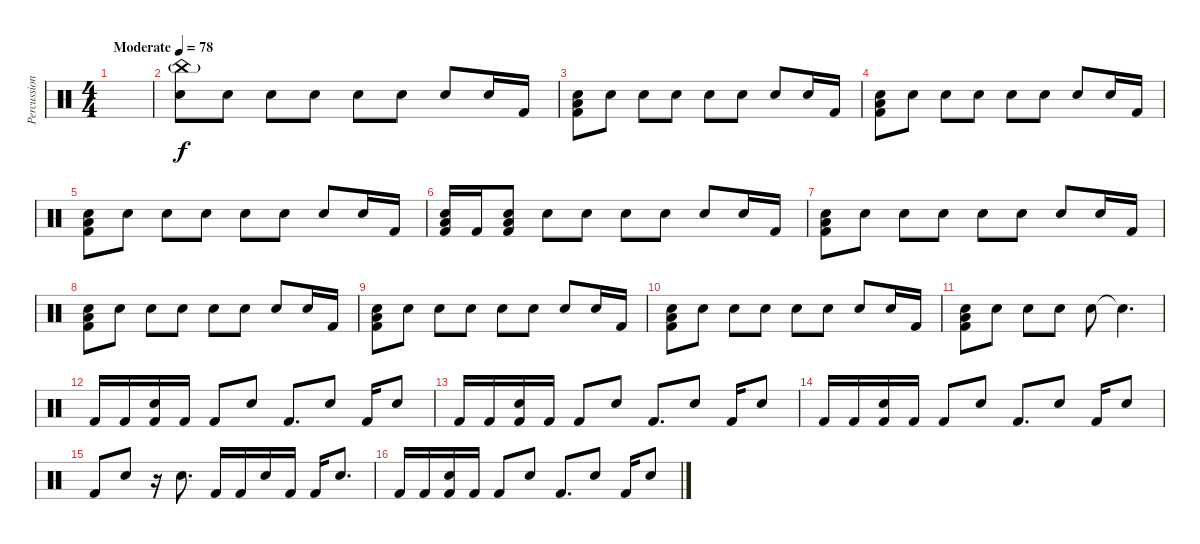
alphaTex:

\track ("Percussions" "Percussion") {instrument percussion}
\staff {score}
\articulation defaults
\ts (4 4)
\tempo (78 "Moderate")
\clef neutral
\ks c
|
("China (hit)"{g} "Snare (hit) 2").8 "Snare (hit) 2".8{dy f} "Snare (hit) 2".8 "Snare (hit) 2".8 "Snare (hit) 2".8 "Snare (hit) 2".8 "Snare (hit) 2".8 "Snare (hit) 2".16 "Kick (hit) 2".16 |
("Snare (hit) 2" "Low Floor Tom (hit)" "Kick (hit) 2").8 "Snare (hit) 2".8 "Snare (hit) 2".8 "Snare (hit) 2".8 "Snare (hit) 2".8 "Snare (hit) 2".8 "Snare (hit) 2".8 "Snare (hit) 2".16 "Kick (hit) 2".16 |
("Snare (hit) 2" "Low Floor Tom (hit)" "Kick (hit) 2").8 "Snare (hit) 2".8 "Snare (hit) 2".8 "Snare (hit) 2".8 "Snare (hit) 2".8 "Snare (hit) 2".8 "Snare (hit) 2".8 "Snare (hit) 2".16 "Kick (hit) 2".16 |
("Snare (hit) 2" "Low Floor Tom (hit)" "Kick (hit) 2").8 "Snare (hit) 2".8 "Snare (hit) 2".8 "Snare (hit) 2".8 "Snare (hit) 2".8 "Snare (hit) 2".8 "Snare (hit) 2".8 "Snare (hit) 2".16 "Kick (hit) 2".16 |
("Snare (hit) 2" "Low Floor Tom (hit)" "Kick (hit) 2").16 "Kick (hit) 2".16 ("Snare (hit) 2" "Low Floor Tom (hit)" "Kick (hit) 2").8 "Snare (hit) 2".8 "Snare (hit) 2".8 "Snare (hit) 2".8 "Snare (hit) 2".8 "Snare (hit) 2".8 "Snare (hit) 2".16 "Kick (hit) 2".16 |
("Snare (hit) 2" "Low Floor Tom (hit)" "Kick (hit) 2").8 "Snare (hit) 2".8 "Snare (hit) 2".8 "Snare (hit) 2".8 "Snare (hit) 2".8 "Snare (hit) 2".8 "Snare (hit) 2".8 "Snare (hit) 2".16 "Kick (hit) 2".16 |
("Snare (hit) 2" "Low Floor Tom (hit)" "Kick (hit) 2").8 "Snare (hit) 2".8 "Snare (hit) 2".8 "Snare (hit) 2".8 "Snare (hit) 2".8 "Snare (hit) 2".8 "Snare (hit) 2".8 "Snare (hit) 2".16 "Kick (hit) 2".16 |
("Snare (hit) 2" "Low Floor Tom (hit)" "Kick (hit) 2").8 "Snare (hit) 2".8 "Snare (hit) 2".8 "Snare (hit) 2".8 "Snare (hit) 2".8 "Snare (hit) 2".8 "Snare (hit) 2".8 "Snare (hit) 2".16 "Kick (hit) 2".16 |
("Snare (hit) 2" "Low Floor Tom (hit)" "Kick (hit) 2").8 "Snare (hit) 2".8 "Snare (hit) 2".8 "Snare (hit) 2".8 "Snare (hit) 2".8 "Snare (hit) 2".8 "Snare (hit) 2".8 "Snare (hit) 2".16 "Kick (hit) 2".16 |
("Snare (hit) 2" "Low Floor Tom (hit)" "Kick (hit) 2").8 "Snare (hit) 2".8 "Snare (hit) 2".8 "Snare (hit) 2".8 "Snare (hit) 2".8 "Snare (hit) 2"{t}.4{d} |
"Kick (hit) 2".16 "Kick (hit) 2".16 ("Snare (hit) 2" "Kick (hit) 2").16 "Kick (hit) 2".16 "Kick (hit) 2".8 "Snare (hit) 2".8 "Kick (hit) 2".8{d} "Snare (hit) 2".8 "Kick (hit) 2".16 "Snare (hit) 2".8 |
"Kick (hit) 2".16 "Kick (hit) 2".16 ("Snare (hit) 2" "Kick (hit) 2").16 "Kick (hit) 2".16 "Kick (hit) 2".8 "Snare (hit) 2".8 "Kick (hit) 2".8{d} "Snare (hit) 2".8 "Kick (hit) 2".16 "Snare (hit) 2".8 |
"Kick (hit) 2".16 "Kick (hit) 2".16 ("Snare (hit) 2" "Kick (hit) 2").16 "Kick (hit) 2".16 "Kick (hit) 2".8 "Snare (hit) 2".8 "Kick (hit) 2".8{d} "Snare (hit) 2".8 "Kick (hit) 2".16 "Snare (hit) 2".8 |
"Kick (hit) 2".8 "Snare (hit) 2".8 r.16 "Snare (hit) 2".8{d} "Kick (hit) 2".16 "Kick (hit) 2".16 "Snare (hit) 2".16 "Kick (hit) 2".16 "Kick (hit) 2".16 "Snare (hit) 2".8{d} |
"Kick (hit) 2".16 "Kick (hit) 2".16 ("Snare (hit) 2" "Kick (hit) 2").16 "Kick (hit) 2".16 "Kick (hit) 2".8 "Snare (hit) 2".8 "Kick (hit) 2".8{d} "Snare (hit) 2".8 "Kick (hit) 2".16 "Snare (hit) 2".8
